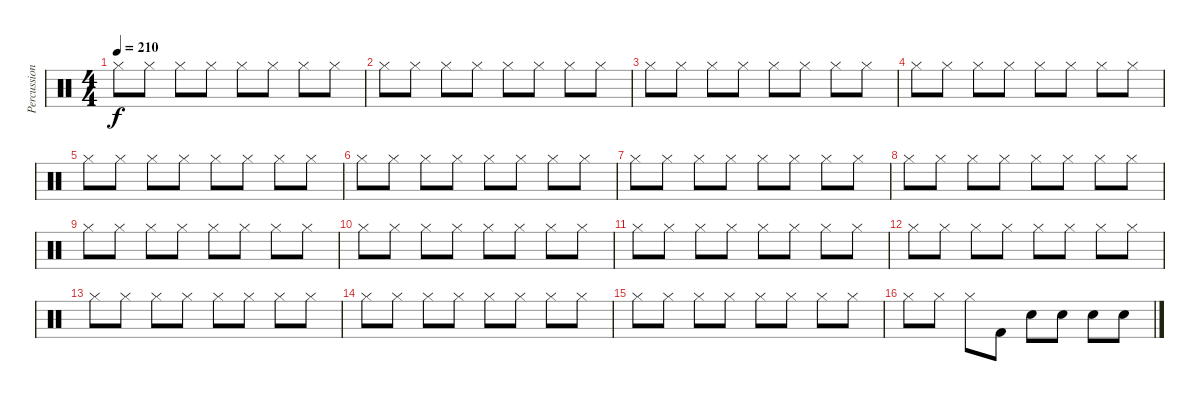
\track ("Percussion" "Percussion") {instrument percussion}
\staff {score}
\articulation defaults
\ts (4 4)
\tempo 210
\clef neutral
\ks c "Hi-Hat (closed)".8{dy f} "Hi-Hat (closed)".8 "Hi-Hat (closed)".8 "Hi-Hat (closed)".8 "Hi-Hat (closed)".8 "Hi-Hat (closed)".8 "Hi-Hat (closed)".8 "Hi-Hat (closed)".8
|
"Hi-Hat (closed)".8 "Hi-Hat (closed)".8 "Hi-Hat (closed)".8 "Hi-Hat (closed)".8 "Hi-Hat (closed)".8 "Hi-Hat (closed)".8 "Hi-Hat (closed)".8 "Hi-Hat (closed)".8 |
"Hi-Hat (closed)".8 "Hi-Hat (closed)".8 "Hi-Hat (closed)".8 "Hi-Hat (closed)".8 "Hi-Hat (closed)".8 "Hi-Hat (closed)".8 "Hi-Hat (closed)".8 "Hi-Hat (closed)".8 |
"Hi-Hat (closed)".8 "Hi-Hat (closed)".8 "Hi-Hat (closed)".8 "Hi-Hat (closed)".8 "Hi-Hat (closed)".8 "Hi-Hat (closed)".8 "Hi-Hat (closed)".8 "Hi-Hat (closed)".8 |
"Hi-Hat (closed)".8 "Hi-Hat (closed)".8 "Hi-Hat (closed)".8 "Hi-Hat (closed)".8 "Hi-Hat (closed)".8 "Hi-Hat (closed)".8 "Hi-Hat (closed)".8 "Hi-Hat (closed)".8 |
"Hi-Hat (closed)".8 "Hi-Hat (closed)".8 "Hi-Hat (closed)".8 "Hi-Hat (closed)".8 "Hi-Hat (closed)".8 "Hi-Hat (closed)".8 "Hi-Hat (closed)".8 "Hi-Hat (closed)".8 |
"Hi-Hat (closed)".8 "Hi-Hat (closed)".8 "Hi-Hat (closed)".8 "Hi-Hat (closed)".8 "Hi-Hat (closed)".8 "Hi-Hat (closed)".8 "Hi-Hat (closed)".8 "Hi-Hat (closed)".8 |
"Hi-Hat (closed)".8 "Hi-Hat (closed)".8 "Hi-Hat (closed)".8 "Hi-Hat (closed)".8 "Hi-Hat (closed)".8 "Hi-Hat (closed)".8 "Hi-Hat (closed)".8 "Hi-Hat (closed)".8 |
"Hi-Hat (closed)".8 "Hi-Hat (closed)".8 "Hi-Hat (closed)".8 "Hi-Hat (closed)".8 "Hi-Hat (closed)".8 "Hi-Hat (closed)".8 "Hi-Hat (closed)".8 "Hi-Hat (closed)".8 |
"Hi-Hat (closed)".8 "Hi-Hat (closed)".8 "Hi-Hat (closed)".8 "Hi-Hat (closed)".8 "Hi-Hat (closed)".8 "Hi-Hat (closed)".8 "Hi-Hat (closed)".8 "Hi-Hat (closed)".8 |
"Hi-Hat (closed)".8 "Hi-Hat (closed)".8 "Hi-Hat (closed)".8 "Hi-Hat (closed)".8 "Hi-Hat (closed)".8 "Hi-Hat (closed)".8 "Hi-Hat (closed)".8 "Hi-Hat (closed)".8 |
"Hi-Hat (closed)".8 "Hi-Hat (closed)".8 "Hi-Hat (closed)".8 "Hi-Hat (closed)".8 "Hi-Hat (closed)".8 "Hi-Hat (closed)".8 "Hi-Hat (closed)".8 "Hi-Hat (closed)".8 |
"Hi-Hat (closed)".8 "Hi-Hat (closed)".8 "Hi-Hat (closed)".8 "Hi-Hat (closed)".8 "Hi-Hat (closed)".8 "Hi-Hat (closed)".8 "Hi-Hat (closed)".8 "Hi-Hat (closed)".8 |
"Hi-Hat (closed)".8 "Hi-Hat (closed)".8 "Hi-Hat (closed)".8 "Hi-Hat (closed)".8 "Hi-Hat (closed)".8 "Hi-Hat (closed)".8 "Hi-Hat (closed)".8 "Hi-Hat (closed)".8 |
"Hi-Hat (closed)".8 "Hi-Hat (closed)".8 "Hi-Hat (closed)".8 "Hi-Hat (closed)".8 "Hi-Hat (closed)".8 "Hi-Hat (closed)".8 "Hi-Hat (closed)".8 "Hi-Hat (closed)".8 |
"Hi-Hat (closed)".8 "Hi-Hat (closed)".8 "Hi-Hat (closed)".8 "Kick (hit) 2".8 "Electric Snare (hit)".8 "Electric Snare (hit)".8 "Electric Snare (hit)".8 "Electric Snare (hit)".8
